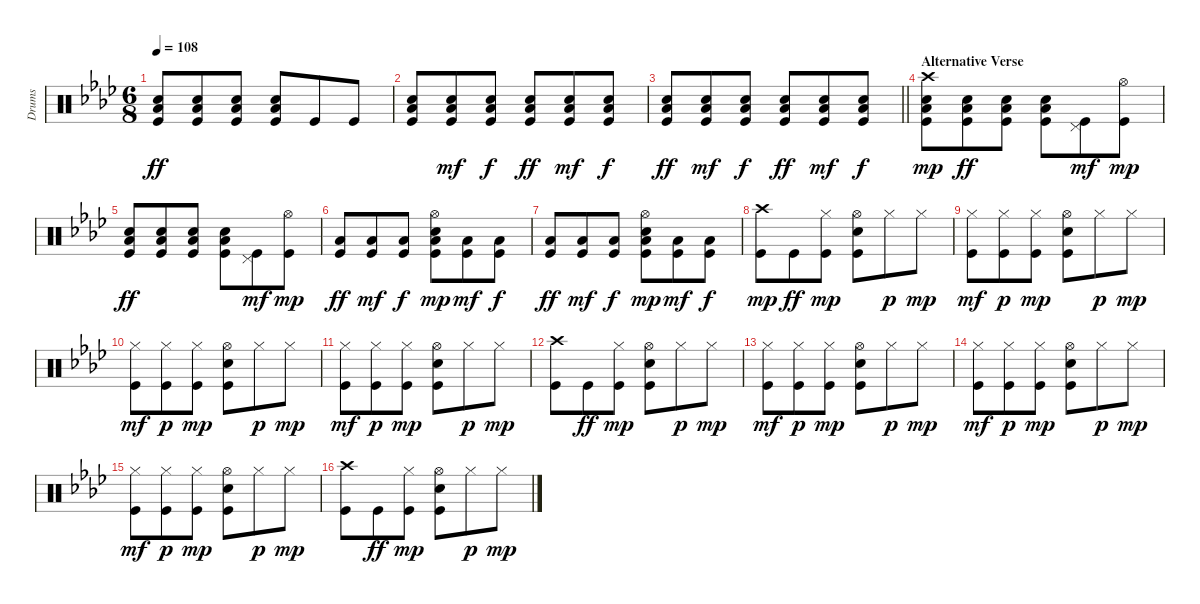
\track ("Drums" "Drums") {instrument percussion}
\staff {score}
\articulation defaults
\ts (6 8)
\tempo 108
\clef neutral
\ks ab
("Kick (hit)" "Electric Snare (hit)" "Low Floor Tom (hit)").8{dy ff} ("Kick (hit)" "Electric Snare (hit)" "Low Floor Tom (hit)").8 ("Kick (hit)" "Electric Snare (hit)" "Low Floor Tom (hit)").8 ("Kick (hit)" "Electric Snare (hit)" "Low Floor Tom (hit)").8 "Kick (hit)".8 "Kick (hit)".8 |
("Kick (hit)" "Electric Snare (hit)" "Low Floor Tom (hit)").8 ("Kick (hit)" "Electric Snare (hit)" "Low Floor Tom (hit)").8{dy mf} ("Kick (hit)" "Electric Snare (hit)" "Low Floor Tom (hit)").8{dy f} ("Kick (hit)" "Electric Snare (hit)" "Low Floor Tom (hit)").8{dy ff} ("Kick (hit)" "Electric Snare (hit)" "Low Floor Tom (hit)").8{dy mf} ("Kick (hit)" "Electric Snare (hit)" "Low Floor Tom (hit)").8{dy f} |
\barLineRight lightlight
("Kick (hit)" "Electric Snare (hit)" "Low Floor Tom (hit)").8{dy ff} ("Kick (hit)" "Electric Snare (hit)" "Low Floor Tom (hit)").8{dy mf} ("Kick (hit)" "Electric Snare (hit)" "Low Floor Tom (hit)").8{dy f} ("Kick (hit)" "Electric Snare (hit)" "Low Floor Tom (hit)").8{dy ff} ("Kick (hit)" "Electric Snare (hit)" "Low Floor Tom (hit)").8{dy mf} ("Kick (hit)" "Electric Snare (hit)" "Low Floor Tom (hit)").8{dy f} |
\section ("" "Alternative Verse")
("Kick (hit)" "Electric Snare (hit)" "Low Floor Tom (hit)" "Crash high (hit)").8{dy mp} ("Kick (hit)" "Electric Snare (hit)" "Low Floor Tom (hit)").8{dy ff} ("Kick (hit)" "Electric Snare (hit)" "Low Floor Tom (hit)").8 ("Kick (hit)" "Electric Snare (hit)" "Low Floor Tom (hit)").8 ("Kick (hit)" "Pedal Hi-Hat (hit)").8{dy mf} ("Kick (hit)" "Hi-Hat (open)").8{dy mp} |
("Kick (hit)" "Electric Snare (hit)" "Low Floor Tom (hit)").8{dy ff} ("Kick (hit)" "Electric Snare (hit)" "Low Floor Tom (hit)").8 ("Kick (hit)" "Electric Snare (hit)" "Low Floor Tom (hit)").8 ("Kick (hit)" "Electric Snare (hit)" "Low Floor Tom (hit)").8 ("Kick (hit)" "Pedal Hi-Hat (hit)").8{dy mf} ("Kick (hit)" "Hi-Hat (open)").8{dy mp} |
("Kick (hit)" "Low Floor Tom (hit)").8{dy ff} ("Kick (hit)" "Low Floor Tom (hit)").8{dy mf} ("Kick (hit)" "Low Floor Tom (hit)").8{dy f} ("Kick (hit)" "Electric Snare (hit)" "Low Floor Tom (hit)" "Hi-Hat (open)").8{dy mp} ("Kick (hit)" "Low Floor Tom (hit)").8{dy mf} ("Kick (hit)" "Low Floor Tom (hit)").8{dy f} |
("Kick (hit)" "Low Floor Tom (hit)").8{dy ff} ("Kick (hit)" "Low Floor Tom (hit)").8{dy mf} ("Kick (hit)" "Low Floor Tom (hit)").8{dy f} ("Kick (hit)" "Electric Snare (hit)" "Low Floor Tom (hit)" "Hi-Hat (open)").8{dy mp} ("Kick (hit)" "Low Floor Tom (hit)").8{dy mf} ("Kick (hit)" "Low Floor Tom (hit)").8{dy f} |
("Kick (hit)" "Crash high (hit)").8{dy mp} "Kick (hit)".8{dy ff} ("Kick (hit)" "Hi-Hat (closed)").8{dy mp} ("Kick (hit)" "Electric Snare (hit)" "Hi-Hat (open)").8 "Hi-Hat (closed)".8{dy p} "Hi-Hat (closed)".8{dy mp} |
("Kick (hit)" "Hi-Hat (closed)").8{dy mf} ("Kick (hit)" "Hi-Hat (closed)").8{dy p} ("Kick (hit)" "Hi-Hat (closed)").8{dy mp} ("Kick (hit)" "Electric Snare (hit)" "Hi-Hat (open)").8 "Hi-Hat (closed)".8{dy p} "Hi-Hat (closed)".8{dy mp} |
("Kick (hit)" "Hi-Hat (closed)").8{dy mf} ("Kick (hit)" "Hi-Hat (closed)").8{dy p} ("Kick (hit)" "Hi-Hat (closed)").8{dy mp} ("Kick (hit)" "Electric Snare (hit)" "Hi-Hat (open)").8 "Hi-Hat (closed)".8{dy p} "Hi-Hat (closed)".8{dy mp} |
("Kick (hit)" "Hi-Hat (closed)").8{dy mf} ("Kick (hit)" "Hi-Hat (closed)").8{dy p} ("Kick (hit)" "Hi-Hat (closed)").8{dy mp} ("Kick (hit)" "Electric Snare (hit)" "Hi-Hat (open)").8 "Hi-Hat (closed)".8{dy p} "Hi-Hat (closed)".8{dy mp} |
("Kick (hit)" "Crash high (hit)").8 "Kick (hit)".8{dy ff} ("Kick (hit)" "Hi-Hat (closed)").8{dy mp} ("Kick (hit)" "Electric Snare (hit)" "Hi-Hat (open)").8 "Hi-Hat (closed)".8{dy p} "Hi-Hat (closed)".8{dy mp} |
("Kick (hit)" "Hi-Hat (closed)").8{dy mf} ("Kick (hit)" "Hi-Hat (closed)").8{dy p} ("Kick (hit)" "Hi-Hat (closed)").8{dy mp} ("Kick (hit)" "Electric Snare (hit)" "Hi-Hat (open)").8 "Hi-Hat (closed)".8{dy p} "Hi-Hat (closed)".8{dy mp} |
("Kick (hit)" "Hi-Hat (closed)").8{dy mf} ("Kick (hit)" "Hi-Hat (closed)").8{dy p} ("Kick (hit)" "Hi-Hat (closed)").8{dy mp} ("Kick (hit)" "Electric Snare (hit)" "Hi-Hat (open)").8 "Hi-Hat (closed)".8{dy p} "Hi-Hat (closed)".8{dy mp} |
("Kick (hit)" "Hi-Hat (closed)").8{dy mf} ("Kick (hit)" "Hi-Hat (closed)").8{dy p} ("Kick (hit)" "Hi-Hat (closed)").8{dy mp} ("Kick (hit)" "Electric Snare (hit)" "Hi-Hat (open)").8 "Hi-Hat (closed)".8{dy p} "Hi-Hat (closed)".8{dy mp} |
("Kick (hit)" "Crash high (hit)").8 "Kick (hit)".8{dy ff} ("Kick (hit)" "Hi-Hat (closed)").8{dy mp} ("Kick (hit)" "Electric Snare (hit)" "Hi-Hat (open)").8 "Hi-Hat (closed)".8{dy p} "Hi-Hat (closed)".8{dy mp}
